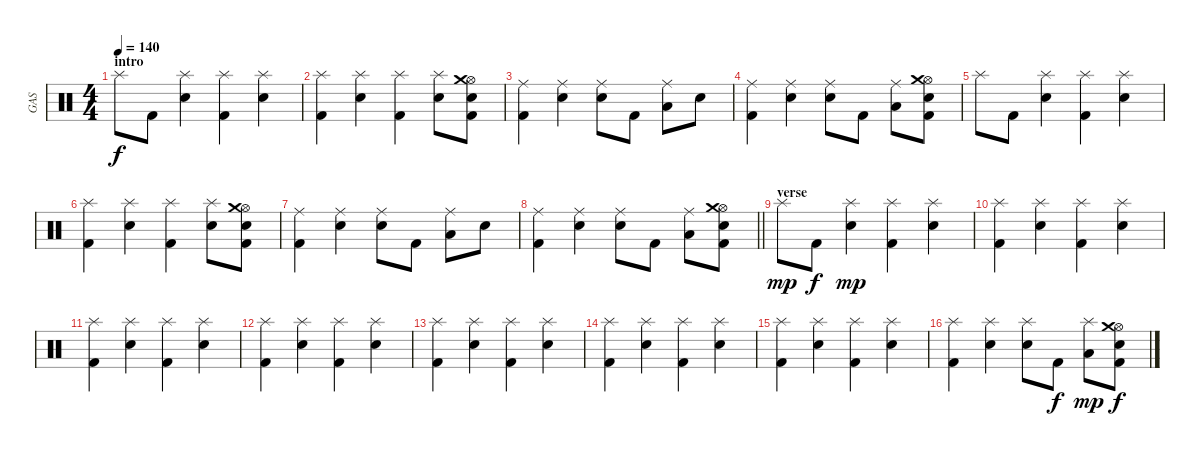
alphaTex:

\track ("GAS" "GAS") {instrument percussion}
\staff {score}
\articulation defaults
\ts (4 4)
\section ("" "intro")
\tempo 140
\clef neutral
\ks c "Splash (hit)".8{dy f} "Kick (hit) 2".8
("Electric Snare (hit)" "Splash (hit)").4 ("Kick (hit) 2" "Splash (hit)").4 ("Electric Snare (hit)" "Splash (hit)").4 |
("Kick (hit) 2" "Splash (hit)").4 ("Electric Snare (hit)" "Splash (hit)").4 ("Kick (hit) 2" "Splash (hit)").4 ("Electric Snare (hit)" "Splash (hit)").8 ("Kick (hit) 2" "Electric Snare (hit)" "Hi-Hat (open)" "Crash medium (hit)").8 |
("Kick (hit) 2" "Ride (middle)").4 ("Electric Snare (hit)" "Ride (middle)").4 ("Electric Snare (hit)" "Ride (middle)").8 "Kick (hit) 2".8 ("Low Tom (hit)" "Ride (middle)").8 "Electric Snare (hit)".8 |
("Kick (hit) 2" "Ride (middle)").4 ("Electric Snare (hit)" "Ride (middle)").4 ("Electric Snare (hit)" "Ride (middle)").8 "Kick (hit) 2".8 ("Low Tom (hit)" "Ride (middle)").8 ("Kick (hit) 2" "Electric Snare (hit)" "Hi-Hat (open)" "Crash medium (hit)").8 |
"Splash (hit)".8 "Kick (hit) 2".8 ("Electric Snare (hit)" "Splash (hit)").4 ("Kick (hit) 2" "Splash (hit)").4 ("Electric Snare (hit)" "Splash (hit)").4 |
("Kick (hit) 2" "Splash (hit)").4 ("Electric Snare (hit)" "Splash (hit)").4 ("Kick (hit) 2" "Splash (hit)").4 ("Electric Snare (hit)" "Splash (hit)").8 ("Kick (hit) 2" "Electric Snare (hit)" "Hi-Hat (open)" "Crash medium (hit)").8 |
("Kick (hit) 2" "Ride (middle)").4 ("Electric Snare (hit)" "Ride (middle)").4 ("Electric Snare (hit)" "Ride (middle)").8 "Kick (hit) 2".8 ("Low Tom (hit)" "Ride (middle)").8 "Electric Snare (hit)".8 |
\barLineRight lightlight
("Kick (hit) 2" "Ride (middle)").4 ("Electric Snare (hit)" "Ride (middle)").4 ("Electric Snare (hit)" "Ride (middle)").8 "Kick (hit) 2".8 ("Low Tom (hit)" "Ride (middle)").8 ("Kick (hit) 2" "Electric Snare (hit)" "Hi-Hat (open)" "Crash medium (hit)").8 |
\section ("" "verse")
"Splash (hit)".8{dy mp} "Kick (hit) 2".8{dy f} ("Electric Snare (hit)" "Splash (hit)").4{dy mp} ("Kick (hit) 2" "Splash (hit)").4 ("Electric Snare (hit)" "Splash (hit)").4 |
("Kick (hit) 2" "Splash (hit)").4 ("Electric Snare (hit)" "Splash (hit)").4 ("Kick (hit) 2" "Splash (hit)").4 ("Electric Snare (hit)" "Splash (hit)").4 |
("Kick (hit) 2" "Splash (hit)").4 ("Electric Snare (hit)" "Splash (hit)").4 ("Kick (hit) 2" "Splash (hit)").4 ("Electric Snare (hit)" "Splash (hit)").4 |
("Kick (hit) 2" "Splash (hit)").4 ("Electric Snare (hit)" "Splash (hit)").4 ("Kick (hit) 2" "Splash (hit)").4 ("Electric Snare (hit)" "Splash (hit)").4 |
("Kick (hit) 2" "Splash (hit)").4 ("Electric Snare (hit)" "Splash (hit)").4 ("Kick (hit) 2" "Splash (hit)").4 ("Electric Snare (hit)" "Splash (hit)").4 |
("Kick (hit) 2" "Splash (hit)").4 ("Electric Snare (hit)" "Splash (hit)").4 ("Kick (hit) 2" "Splash (hit)").4 ("Electric Snare (hit)" "Splash (hit)").4 |
("Kick (hit) 2" "Splash (hit)").4 ("Electric Snare (hit)" "Splash (hit)").4 ("Kick (hit) 2" "Splash (hit)").4 ("Electric Snare (hit)" "Splash (hit)").4 |
("Kick (hit) 2" "Splash (hit)").4 ("Electric Snare (hit)" "Splash (hit)").4 ("Electric Snare (hit)" "Splash (hit)").8 "Kick (hit) 2".8{dy f} ("Low Tom (hit)" "Splash (hit)").8{dy mp} ("Kick (hit) 2" "Electric Snare (hit)" "Hi-Hat (open)" "Crash medium (hit)").8{dy f}
